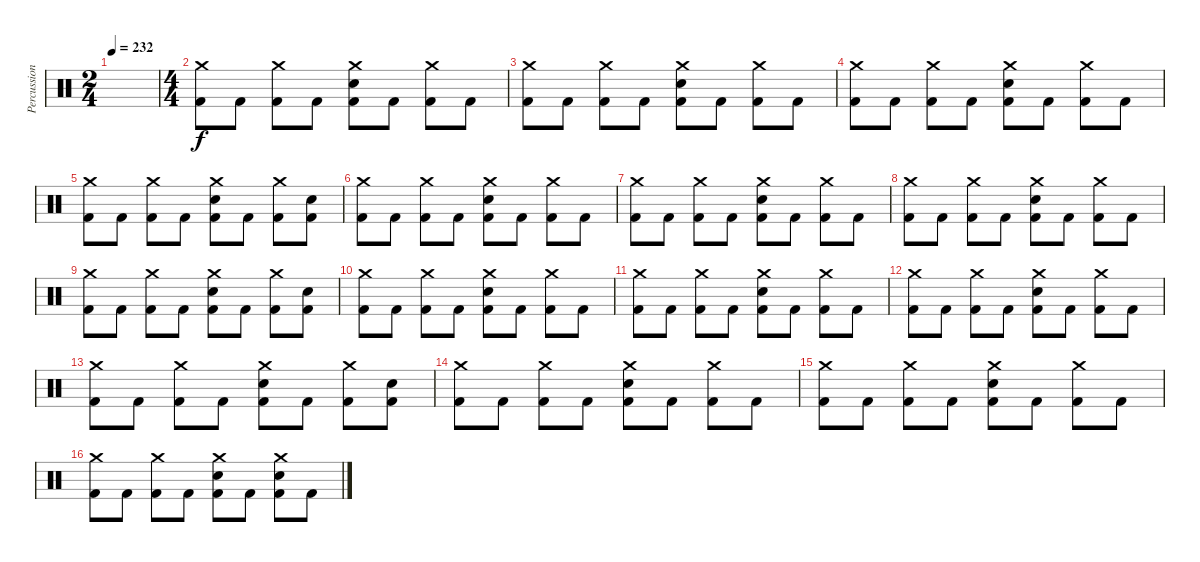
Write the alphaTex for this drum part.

\track ("Percussions" "Percussion") {instrument percussion}
\staff {score}
\articulation defaults
\ts (2 4)
\tempo 232
\clef neutral
\ks c
|
\ts (4 4)
("Crash medium (hit)" "Kick (hit) 2").8 "Kick (hit) 2".8 ("Crash medium (hit)" "Kick (hit) 2").8 "Kick (hit) 2".8 ("Crash medium (hit)" "Electric Snare (hit)" "Kick (hit) 2").8 "Kick (hit) 2".8 ("Crash medium (hit)" "Kick (hit) 2").8 "Kick (hit) 2".8 |
("Crash medium (hit)" "Kick (hit) 2").8 "Kick (hit) 2".8 ("Crash medium (hit)" "Kick (hit) 2").8 "Kick (hit) 2".8 ("Crash medium (hit)" "Electric Snare (hit)" "Kick (hit) 2").8 "Kick (hit) 2".8 ("Crash medium (hit)" "Kick (hit) 2").8 "Kick (hit) 2".8 |
("Crash medium (hit)" "Kick (hit) 2").8 "Kick (hit) 2".8 ("Crash medium (hit)" "Kick (hit) 2").8 "Kick (hit) 2".8 ("Crash medium (hit)" "Electric Snare (hit)" "Kick (hit) 2").8 "Kick (hit) 2".8 ("Crash medium (hit)" "Kick (hit) 2").8 "Kick (hit) 2".8 |
("Crash medium (hit)" "Kick (hit) 2").8 "Kick (hit) 2".8 ("Crash medium (hit)" "Kick (hit) 2").8 "Kick (hit) 2".8 ("Crash medium (hit)" "Electric Snare (hit)" "Kick (hit) 2").8 "Kick (hit) 2".8 ("Crash medium (hit)" "Kick (hit) 2").8 ("Electric Snare (hit)" "Kick (hit) 2").8 |
("Crash medium (hit)" "Kick (hit) 2").8 "Kick (hit) 2".8 ("Crash medium (hit)" "Kick (hit) 2").8 "Kick (hit) 2".8 ("Crash medium (hit)" "Electric Snare (hit)" "Kick (hit) 2").8 "Kick (hit) 2".8 ("Crash medium (hit)" "Kick (hit) 2").8 "Kick (hit) 2".8 |
("Crash medium (hit)" "Kick (hit) 2").8 "Kick (hit) 2".8 ("Crash medium (hit)" "Kick (hit) 2").8 "Kick (hit) 2".8 ("Crash medium (hit)" "Electric Snare (hit)" "Kick (hit) 2").8 "Kick (hit) 2".8 ("Crash medium (hit)" "Kick (hit) 2").8 "Kick (hit) 2".8 |
("Crash medium (hit)" "Kick (hit) 2").8 "Kick (hit) 2".8 ("Crash medium (hit)" "Kick (hit) 2").8 "Kick (hit) 2".8 ("Crash medium (hit)" "Electric Snare (hit)" "Kick (hit) 2").8 "Kick (hit) 2".8 ("Crash medium (hit)" "Kick (hit) 2").8 "Kick (hit) 2".8 |
("Crash medium (hit)" "Kick (hit) 2").8 "Kick (hit) 2".8 ("Crash medium (hit)" "Kick (hit) 2").8 "Kick (hit) 2".8 ("Crash medium (hit)" "Electric Snare (hit)" "Kick (hit) 2").8 "Kick (hit) 2".8 ("Crash medium (hit)" "Kick (hit) 2").8 ("Electric Snare (hit)" "Kick (hit) 2").8 |
("Crash medium (hit)" "Kick (hit) 2").8 "Kick (hit) 2".8 ("Crash medium (hit)" "Kick (hit) 2").8 "Kick (hit) 2".8 ("Crash medium (hit)" "Electric Snare (hit)" "Kick (hit) 2").8 "Kick (hit) 2".8 ("Crash medium (hit)" "Kick (hit) 2").8 "Kick (hit) 2".8 |
("Crash medium (hit)" "Kick (hit) 2").8 "Kick (hit) 2".8 ("Crash medium (hit)" "Kick (hit) 2").8 "Kick (hit) 2".8 ("Crash medium (hit)" "Electric Snare (hit)" "Kick (hit) 2").8 "Kick (hit) 2".8 ("Crash medium (hit)" "Kick (hit) 2").8 "Kick (hit) 2".8 |
("Crash medium (hit)" "Kick (hit) 2").8 "Kick (hit) 2".8 ("Crash medium (hit)" "Kick (hit) 2").8 "Kick (hit) 2".8 ("Crash medium (hit)" "Electric Snare (hit)" "Kick (hit) 2").8 "Kick (hit) 2".8 ("Crash medium (hit)" "Kick (hit) 2").8 "Kick (hit) 2".8 |
("Crash medium (hit)" "Kick (hit) 2").8 "Kick (hit) 2".8 ("Crash medium (hit)" "Kick (hit) 2").8 "Kick (hit) 2".8 ("Crash medium (hit)" "Electric Snare (hit)" "Kick (hit) 2").8 "Kick (hit) 2".8 ("Crash medium (hit)" "Kick (hit) 2").8 ("Electric Snare (hit)" "Kick (hit) 2").8 |
("Crash medium (hit)" "Kick (hit) 2").8 "Kick (hit) 2".8 ("Crash medium (hit)" "Kick (hit) 2").8 "Kick (hit) 2".8 ("Crash medium (hit)" "Electric Snare (hit)" "Kick (hit) 2").8 "Kick (hit) 2".8 ("Crash medium (hit)" "Kick (hit) 2").8 "Kick (hit) 2".8 |
("Crash medium (hit)" "Kick (hit) 2").8 "Kick (hit) 2".8 ("Crash medium (hit)" "Kick (hit) 2").8 "Kick (hit) 2".8 ("Crash medium (hit)" "Electric Snare (hit)" "Kick (hit) 2").8 "Kick (hit) 2".8 ("Crash medium (hit)" "Kick (hit) 2").8 "Kick (hit) 2".8 |
("Crash medium (hit)" "Kick (hit) 2").8 "Kick (hit) 2".8 ("Crash medium (hit)" "Kick (hit) 2").8 "Kick (hit) 2".8 ("Crash medium (hit)" "Electric Snare (hit)" "Kick (hit) 2").8 "Kick (hit) 2".8 ("Crash medium (hit)" "Electric Snare (hit)" "Kick (hit) 2").8 "Kick (hit) 2".8
